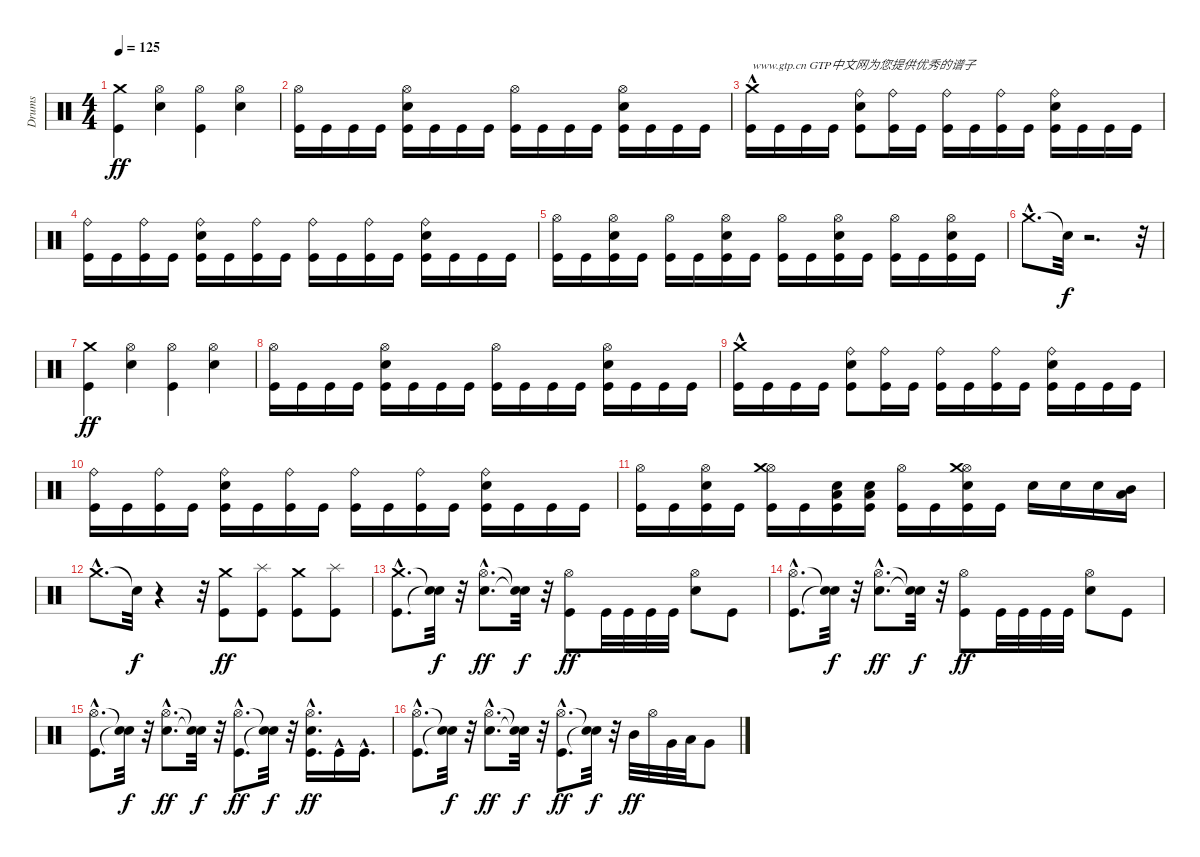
\track ("Drums" "Drums") {instrument percussion}
\staff {score}
\articulation defaults
\ts (4 4)
\tempo 125
\clef neutral
\ks c
("Kick (hit)" "Crash medium (hit)").4{dy ff} ("Electric Snare (hit)" "Hi-Hat (open)").4 ("Kick (hit)" "Hi-Hat (open)").4 ("Electric Snare (hit)" "Hi-Hat (open)").4 |
("Kick (hit)" "Hi-Hat (open)").16 "Kick (hit)".16 "Kick (hit)".16 "Kick (hit)".16 ("Kick (hit)" "Electric Snare (hit)" "Hi-Hat (open)").16 "Kick (hit)".16 "Kick (hit)".16 "Kick (hit)".16 ("Kick (hit)" "Hi-Hat (open)").16 "Kick (hit)".16 "Kick (hit)".16 "Kick (hit)".16 ("Kick (hit)" "Electric Snare (hit)" "Hi-Hat (open)").16 "Kick (hit)".16 "Kick (hit)".16 "Kick (hit)".16 |
("Kick (hit)" "Crash medium (hit)"{hac}).16{txt "www.gtp.cn GTP中文网为您提供优秀的谱子"} "Kick (hit)".16 "Kick (hit)".16 "Kick (hit)".16 ("Kick (hit)" "Electric Snare (hit)" "Ride (bell)").8 ("Kick (hit)" "Ride (bell)").16 "Kick (hit)".16 ("Kick (hit)" "Ride (bell)").16 "Kick (hit)".16 ("Kick (hit)" "Ride (bell)").16 "Kick (hit)".16 ("Kick (hit)" "Electric Snare (hit)" "Ride (bell)").16 "Kick (hit)".16 "Kick (hit)".16 "Kick (hit)".16 |
("Kick (hit)" "Ride (bell)").16 "Kick (hit)".16 ("Kick (hit)" "Ride (bell)").16 "Kick (hit)".16 ("Kick (hit)" "Electric Snare (hit)" "Ride (bell)").16 "Kick (hit)".16 ("Kick (hit)" "Ride (bell)").16 "Kick (hit)".16 ("Kick (hit)" "Ride (bell)").16 "Kick (hit)".16 ("Kick (hit)" "Ride (bell)").16 "Kick (hit)".16 ("Kick (hit)" "Electric Snare (hit)" "Ride (bell)").16 "Kick (hit)".16 "Kick (hit)".16 "Kick (hit)".16 |
("Kick (hit)" "Hi-Hat (open)").16 "Kick (hit)".16 ("Kick (hit)" "Electric Snare (hit)" "Hi-Hat (open)").16 "Kick (hit)".16 ("Kick (hit)" "Hi-Hat (open)").16 "Kick (hit)".16 ("Kick (hit)" "Electric Snare (hit)" "Hi-Hat (open)").16 "Kick (hit)".16 ("Kick (hit)" "Hi-Hat (open)").16 "Kick (hit)".16 ("Kick (hit)" "Electric Snare (hit)" "Hi-Hat (open)").16 "Kick (hit)".16 ("Kick (hit)" "Hi-Hat (open)").16 "Kick (hit)".16 ("Kick (hit)" "Electric Snare (hit)" "Hi-Hat (open)").16 "Kick (hit)".16 |
"Crash medium (hit)"{hac}.8{d} "Snare (hit)"{t}.32{dy f} r.2{d} r.32 |
("Kick (hit)" "Crash medium (hit)").4{dy ff} ("Electric Snare (hit)" "Hi-Hat (open)").4 ("Kick (hit)" "Hi-Hat (open)").4 ("Electric Snare (hit)" "Hi-Hat (open)").4 |
("Kick (hit)" "Hi-Hat (open)").16 "Kick (hit)".16 "Kick (hit)".16 "Kick (hit)".16 ("Kick (hit)" "Electric Snare (hit)" "Hi-Hat (open)").16 "Kick (hit)".16 "Kick (hit)".16 "Kick (hit)".16 ("Kick (hit)" "Hi-Hat (open)").16 "Kick (hit)".16 "Kick (hit)".16 "Kick (hit)".16 ("Kick (hit)" "Electric Snare (hit)" "Hi-Hat (open)").16 "Kick (hit)".16 "Kick (hit)".16 "Kick (hit)".16 |
("Kick (hit)" "Crash medium (hit)"{hac}).16 "Kick (hit)".16 "Kick (hit)".16 "Kick (hit)".16 ("Kick (hit)" "Electric Snare (hit)" "Ride (bell)").8 ("Kick (hit)" "Ride (bell)").16 "Kick (hit)".16 ("Kick (hit)" "Ride (bell)").16 "Kick (hit)".16 ("Kick (hit)" "Ride (bell)").16 "Kick (hit)".16 ("Kick (hit)" "Electric Snare (hit)" "Ride (bell)").16 "Kick (hit)".16 "Kick (hit)".16 "Kick (hit)".16 |
("Kick (hit)" "Ride (bell)").16 "Kick (hit)".16 ("Kick (hit)" "Ride (bell)").16 "Kick (hit)".16 ("Kick (hit)" "Electric Snare (hit)" "Ride (bell)").16 "Kick (hit)".16 ("Kick (hit)" "Ride (bell)").16 "Kick (hit)".16 ("Kick (hit)" "Ride (bell)").16 "Kick (hit)".16 ("Kick (hit)" "Ride (bell)").16 "Kick (hit)".16 ("Kick (hit)" "Electric Snare (hit)" "Ride (bell)").16 "Kick (hit)".16 "Kick (hit)".16 "Kick (hit)".16 |
("Kick (hit)" "Hi-Hat (open)").16 "Kick (hit)".16 ("Kick (hit)" "Electric Snare (hit)" "Hi-Hat (open)").16 "Kick (hit)".16 ("Kick (hit)" "Hi-Hat (open)" "Crash medium (hit)").16 "Kick (hit)".16 ("Kick (hit)" "Electric Snare (hit)" "Low Tom (hit)").16 ("Kick (hit)" "Electric Snare (hit)" "Low Tom (hit)").16 ("Kick (hit)" "Hi-Hat (open)").16 "Kick (hit)".16 ("Kick (hit)" "Electric Snare (hit)" "Hi-Hat (open)" "Crash medium (hit)").16 "Kick (hit)".16 "Electric Snare (hit)".16 "Electric Snare (hit)".16 "Electric Snare (hit)".16 ("Low Floor Tom (hit)" "Mid Tom (hit)").16 |
"Crash medium (hit)"{hac}.8{d} "Snare (hit)"{t}.32{dy f} r.4 r.32 ("Kick (hit)" "Crash medium (hit)").8{dy ff} ("Kick (hit)" "Splash (hit)").8 ("Kick (hit)" "Crash medium (hit)").8 ("Kick (hit)" "Splash (hit)").8 |
("Kick (hit)"{hac} "Crash medium (hit)"{hac}).8{d} ("Snare (hit)"{t} "Snare (hit)"{t}).32{dy f} r.32 ("Electric Snare (hit)"{hac} "Hi-Hat (open)"{hac}).8{d dy ff} ("Snare (hit)"{t} "Snare (hit)"{t}).32{dy f} r.32 ("Kick (hit)" "Hi-Hat (open)").8{dy ff} "Kick (hit)".32 "Kick (hit)".32 "Kick (hit)".32 "Kick (hit)".32 ("Electric Snare (hit)" "Hi-Hat (open)").8 "Kick (hit)".8 |
("Kick (hit)"{hac} "Hi-Hat (open)"{hac}).8{d} ("Snare (hit)"{t} "Snare (hit)"{t}).32{dy f} r.32 ("Electric Snare (hit)"{hac} "Hi-Hat (open)"{hac}).8{d dy ff} ("Snare (hit)"{t} "Snare (hit)"{t}).32{dy f} r.32 ("Kick (hit)" "Hi-Hat (open)").8{dy ff} "Kick (hit)".32 "Kick (hit)".32 "Kick (hit)".32 "Kick (hit)".32 ("Electric Snare (hit)" "Hi-Hat (open)").8 "Kick (hit)".8 |
("Kick (hit)"{hac} "Hi-Hat (open)"{hac}).8{d} ("Snare (hit)"{t} "Snare (hit)"{t}).32{dy f} r.32 ("Electric Snare (hit)"{hac} "Hi-Hat (open)"{hac}).8{d dy ff} ("Snare (hit)"{t} "Snare (hit)"{t}).32{dy f} r.32 ("Kick (hit)"{hac} "Hi-Hat (open)"{hac}).8{d dy ff} ("Snare (hit)"{t} "Snare (hit)"{t}).32{dy f} r.32 ("Kick (hit)"{hac} "Electric Snare (hit)"{hac} "Hi-Hat (open)"{hac}).16{d dy ff} "Kick (hit)"{hac}.16 "Kick (hit)"{hac}.16{d} |
("Kick (hit)"{hac} "Hi-Hat (open)"{hac}).8{d} ("Snare (hit)"{t} "Snare (hit)"{t}).32{dy f} r.32 ("Electric Snare (hit)"{hac} "Hi-Hat (open)"{hac}).8{d dy ff} ("Snare (hit)"{t} "Snare (hit)"{t}).32{dy f} r.32 ("Kick (hit)"{hac} "Hi-Hat (open)"{hac}).8{d dy ff} ("Snare (hit)"{t} "Snare (hit)"{t}).32{dy f} r.32 "Mid Tom (hit)".32{dy ff} "Hi-Hat (open)".32 "Very Low Tom (hit)".32 "Low Floor Tom (hit)".32 "Very Low Tom (hit)".8
